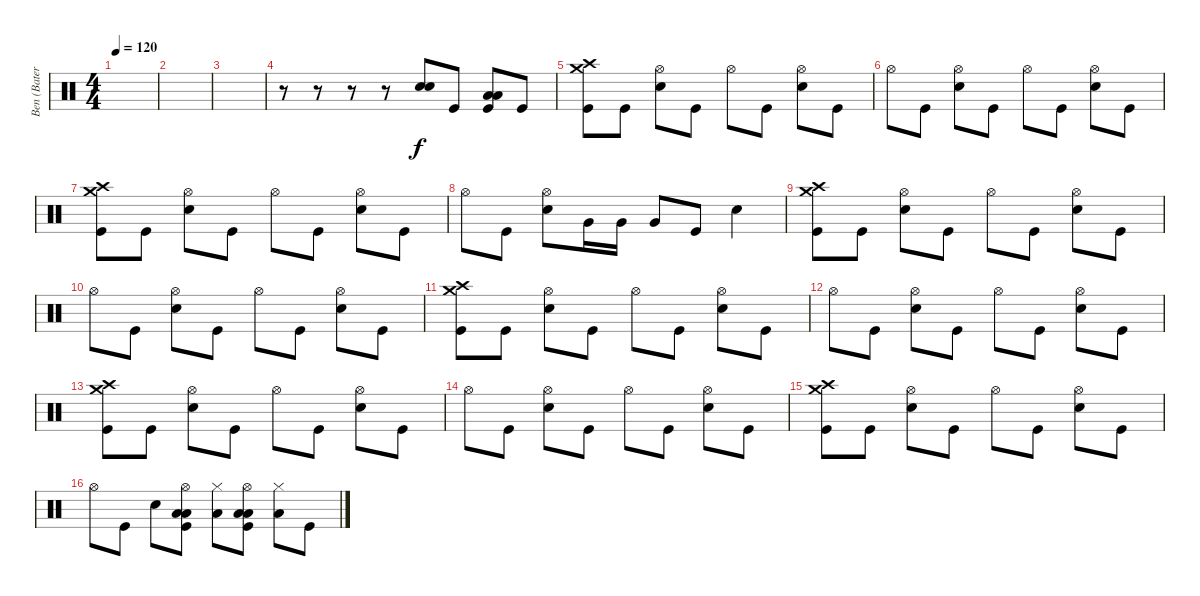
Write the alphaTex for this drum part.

\track ("Ben (Bateria)" "Ben (Bater") {instrument percussion}
\staff {score}
\articulation defaults
\ts (4 4)
\tempo 120
\clef neutral
\ks c
|
|
|
r.8 r.8 r.8 r.8 ("Snare (hit) 2" "Snare (hit) 2").8 "Kick (hit)".8 ("Kick (hit)" "Low Tom (hit)" "Low Tom (hit)").8 "Kick (hit)".8 |
("Kick (hit)" "Crash high (hit)" "Crash medium (hit)").8 "Kick (hit)".8 ("Snare (hit) 2" "Hi-Hat (open)").8 "Kick (hit)".8 "Hi-Hat (open)".8 "Kick (hit)".8 ("Snare (hit) 2" "Hi-Hat (open)").8 "Kick (hit)".8 |
"Hi-Hat (open)".8 "Kick (hit)".8 ("Snare (hit) 2" "Hi-Hat (open)").8 "Kick (hit)".8 "Hi-Hat (open)".8 "Kick (hit)".8 ("Snare (hit) 2" "Hi-Hat (open)").8 "Kick (hit)".8 |
("Kick (hit)" "Crash high (hit)" "Crash medium (hit)").8 "Kick (hit)".8 ("Snare (hit) 2" "Hi-Hat (open)").8 "Kick (hit)".8 "Hi-Hat (open)".8 "Kick (hit)".8 ("Snare (hit) 2" "Hi-Hat (open)").8 "Kick (hit)".8 |
"Hi-Hat (open)".8 "Kick (hit)".8 ("Snare (hit) 2" "Hi-Hat (open)").8 "Very Low Tom (hit)".16 "Very Low Tom (hit)".16 "Very Low Tom (hit)".8 "Kick (hit)".8 "Snare (hit) 2".4 |
("Kick (hit)" "Crash high (hit)" "Crash medium (hit)").8 "Kick (hit)".8 ("Snare (hit) 2" "Hi-Hat (open)").8 "Kick (hit)".8 "Hi-Hat (open)".8 "Kick (hit)".8 ("Snare (hit) 2" "Hi-Hat (open)").8 "Kick (hit)".8 |
"Hi-Hat (open)".8 "Kick (hit)".8 ("Snare (hit) 2" "Hi-Hat (open)").8 "Kick (hit)".8 "Hi-Hat (open)".8 "Kick (hit)".8 ("Snare (hit) 2" "Hi-Hat (open)").8 "Kick (hit)".8 |
("Kick (hit)" "Crash high (hit)" "Crash medium (hit)").8 "Kick (hit)".8 ("Snare (hit) 2" "Hi-Hat (open)").8 "Kick (hit)".8 "Hi-Hat (open)".8 "Kick (hit)".8 ("Snare (hit) 2" "Hi-Hat (open)").8 "Kick (hit)".8 |
"Hi-Hat (open)".8 "Kick (hit)".8 ("Snare (hit) 2" "Hi-Hat (open)").8 "Kick (hit)".8 "Hi-Hat (open)".8 "Kick (hit)".8 ("Snare (hit) 2" "Hi-Hat (open)").8 "Kick (hit)".8 |
("Kick (hit)" "Crash high (hit)" "Crash medium (hit)").8 "Kick (hit)".8 ("Snare (hit) 2" "Hi-Hat (open)").8 "Kick (hit)".8 "Hi-Hat (open)".8 "Kick (hit)".8 ("Snare (hit) 2" "Hi-Hat (open)").8 "Kick (hit)".8 |
"Hi-Hat (open)".8 "Kick (hit)".8 ("Snare (hit) 2" "Hi-Hat (open)").8 "Kick (hit)".8 "Hi-Hat (open)".8 "Kick (hit)".8 ("Snare (hit) 2" "Hi-Hat (open)").8 "Kick (hit)".8 |
("Kick (hit)" "Crash high (hit)" "Crash medium (hit)").8 "Kick (hit)".8 ("Snare (hit) 2" "Hi-Hat (open)").8 "Kick (hit)".8 "Hi-Hat (open)".8 "Kick (hit)".8 ("Snare (hit) 2" "Hi-Hat (open)").8 "Kick (hit)".8 |
"Hi-Hat (open)".8 "Kick (hit)".8 "Snare (hit) 2".8 ("Kick (hit)" "Low Tom (hit)" "Low Tom (hit)" "Hi-Hat (open)").8 ("Low Floor Tom (hit)" "Hi-Hat (closed)").8 ("Kick (hit)" "Low Tom (hit)" "Low Tom (hit)" "Hi-Hat (open)").8 ("Low Floor Tom (hit)" "Hi-Hat (closed)").8 "Kick (hit)".8
